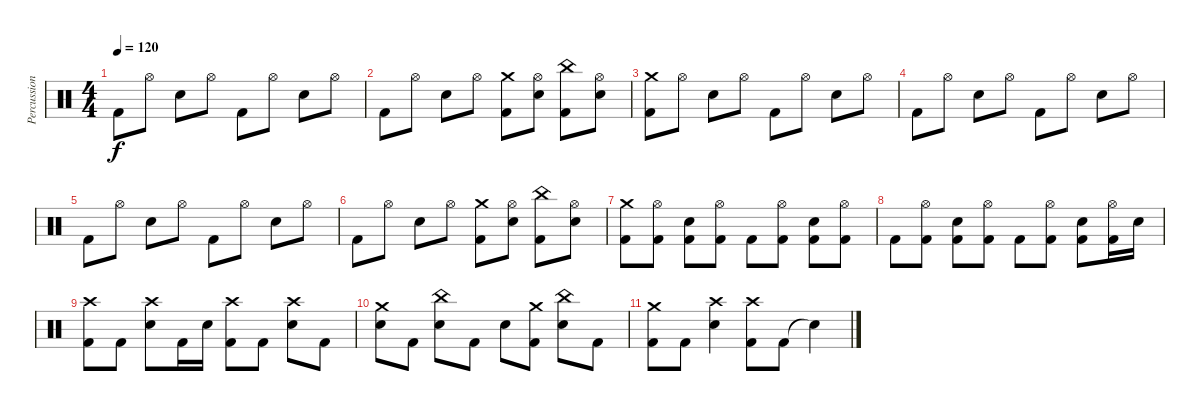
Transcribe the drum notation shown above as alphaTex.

\track ("Percussion" "Percussion") {instrument percussion}
\staff {score}
\articulation defaults
\ts (4 4)
\tempo 120
\clef neutral
\ks c "Kick (hit) 2".8{dy f} "Hi-Hat (open)".8 "Snare (hit) 2".8 "Hi-Hat (open)".8 "Kick (hit) 2".8 "Hi-Hat (open)".8 "Snare (hit) 2".8 "Hi-Hat (open)".8
|
"Kick (hit) 2".8 "Hi-Hat (open)".8 "Snare (hit) 2".8 "Hi-Hat (open)".8 ("Crash medium (hit)" "Kick (hit) 2").8 ("Hi-Hat (open)" "Snare (hit) 2").8 ("China (hit)" "Kick (hit) 2").8 ("Hi-Hat (open)" "Snare (hit) 2").8 |
("Crash medium (hit)" "Kick (hit) 2").8 "Hi-Hat (open)".8 "Snare (hit) 2".8 "Hi-Hat (open)".8 "Kick (hit) 2".8 "Hi-Hat (open)".8 "Snare (hit) 2".8 "Hi-Hat (open)".8 |
"Kick (hit) 2".8 "Hi-Hat (open)".8 "Snare (hit) 2".8 "Hi-Hat (open)".8 "Kick (hit) 2".8 "Hi-Hat (open)".8 "Snare (hit) 2".8 "Hi-Hat (open)".8 |
"Kick (hit) 2".8 "Hi-Hat (open)".8 "Snare (hit) 2".8 "Hi-Hat (open)".8 "Kick (hit) 2".8 "Hi-Hat (open)".8 "Snare (hit) 2".8 "Hi-Hat (open)".8 |
"Kick (hit) 2".8 "Hi-Hat (open)".8 "Snare (hit) 2".8 "Hi-Hat (open)".8 ("Crash medium (hit)" "Kick (hit) 2").8 ("Hi-Hat (open)" "Snare (hit) 2").8 ("China (hit)" "Kick (hit) 2").8 ("Hi-Hat (open)" "Snare (hit) 2").8 |
("Crash medium (hit)" "Kick (hit) 2").8 ("Hi-Hat (open)" "Kick (hit) 2").8 ("Snare (hit) 2" "Kick (hit) 2").8 ("Hi-Hat (open)" "Kick (hit) 2").8 "Kick (hit) 2".8 ("Hi-Hat (open)" "Kick (hit) 2").8 ("Snare (hit) 2" "Kick (hit) 2").8 ("Hi-Hat (open)" "Kick (hit) 2").8 |
"Kick (hit) 2".8 ("Hi-Hat (open)" "Kick (hit) 2").8 ("Snare (hit) 2" "Kick (hit) 2").8 ("Hi-Hat (open)" "Kick (hit) 2").8 "Kick (hit) 2".8 ("Hi-Hat (open)" "Kick (hit) 2").8 ("Snare (hit) 2" "Kick (hit) 2").8 ("Hi-Hat (open)" "Kick (hit) 2").16 "Snare (hit) 2".16 |
("Crash high (hit)" "Kick (hit) 2").8 "Kick (hit) 2".8 ("Crash high (hit)" "Snare (hit) 2").8 "Kick (hit) 2".16 "Snare (hit) 2".16 ("Crash high (hit)" "Kick (hit) 2").8 "Kick (hit) 2".8 ("Crash high (hit)" "Snare (hit) 2").8 "Kick (hit) 2".8 |
("Crash medium (hit)" "Snare (hit) 2").8 "Kick (hit) 2".8 ("China (hit)" "Snare (hit) 2").8 "Kick (hit) 2".8 "Snare (hit) 2".8 ("Crash medium (hit)" "Kick (hit) 2").8 ("China (hit)" "Snare (hit) 2").8 "Kick (hit) 2".8 |
("Crash medium (hit)" "Kick (hit) 2").8 "Kick (hit) 2".8 ("Crash high (hit)" "Snare (hit) 2").4 ("Crash high (hit)" "Kick (hit) 2").8 "Kick (hit) 2".8 "Snare (hit)"{t}.4
